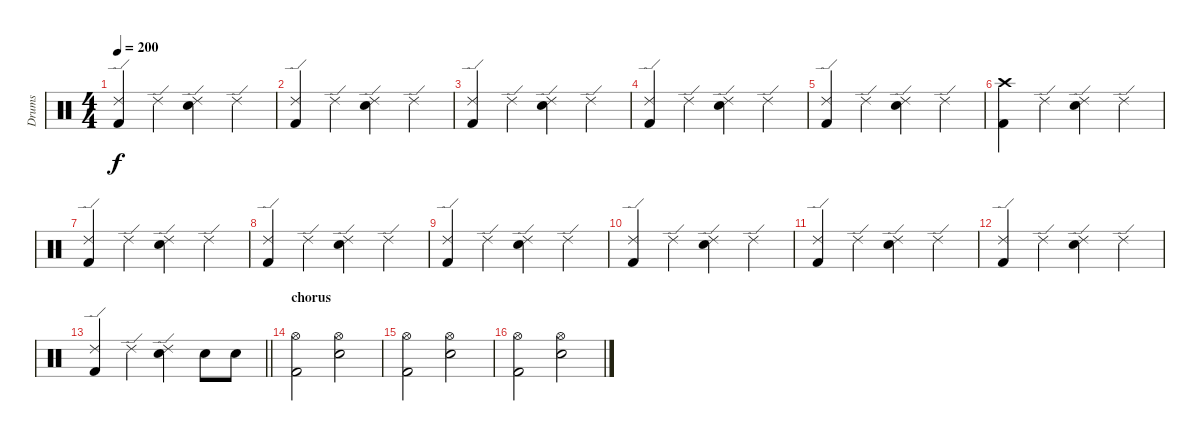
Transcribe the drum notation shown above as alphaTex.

\track ("Drums" "Drums") {instrument percussion}
\staff {score}
\articulation defaults
\ts (4 4)
\tempo 200
\clef neutral
\ks c
("Ride (edge) 2" "Kick (hit) 2").4{dy f} "Ride (edge) 2".4 ("Ride (edge) 2" "Electric Snare (hit)").4 "Ride (edge) 2".4 |
("Ride (edge) 2" "Kick (hit) 2").4 "Ride (edge) 2".4 ("Ride (edge) 2" "Electric Snare (hit)").4 "Ride (edge) 2".4 |
("Ride (edge) 2" "Kick (hit) 2").4 "Ride (edge) 2".4 ("Ride (edge) 2" "Electric Snare (hit)").4 "Ride (edge) 2".4 |
("Ride (edge) 2" "Kick (hit) 2").4 "Ride (edge) 2".4 ("Ride (edge) 2" "Electric Snare (hit)").4 "Ride (edge) 2".4 |
("Ride (edge) 2" "Kick (hit) 2").4 "Ride (edge) 2".4 ("Ride (edge) 2" "Electric Snare (hit)").4 "Ride (edge) 2".4 |
("Crash high (hit)" "Kick (hit) 2").4 "Ride (edge) 2".4 ("Ride (edge) 2" "Electric Snare (hit)").4 "Ride (edge) 2".4 |
("Ride (edge) 2" "Kick (hit) 2").4 "Ride (edge) 2".4 ("Ride (edge) 2" "Electric Snare (hit)").4 "Ride (edge) 2".4 |
("Ride (edge) 2" "Kick (hit) 2").4 "Ride (edge) 2".4 ("Ride (edge) 2" "Electric Snare (hit)").4 "Ride (edge) 2".4 |
("Ride (edge) 2" "Kick (hit) 2").4 "Ride (edge) 2".4 ("Ride (edge) 2" "Electric Snare (hit)").4 "Ride (edge) 2".4 |
("Ride (edge) 2" "Kick (hit) 2").4 "Ride (edge) 2".4 ("Ride (edge) 2" "Electric Snare (hit)").4 "Ride (edge) 2".4 |
("Ride (edge) 2" "Kick (hit) 2").4 "Ride (edge) 2".4 ("Ride (edge) 2" "Electric Snare (hit)").4 "Ride (edge) 2".4 |
("Ride (edge) 2" "Kick (hit) 2").4 "Ride (edge) 2".4 ("Ride (edge) 2" "Electric Snare (hit)").4 "Ride (edge) 2".4 |
\barLineRight lightlight
("Ride (edge) 2" "Kick (hit) 2").4 "Ride (edge) 2".4 ("Ride (edge) 2" "Electric Snare (hit)").4 "Electric Snare (hit)".8 "Electric Snare (hit)".8 |
\section ("" "chorus")
("Hi-Hat (open)" "Kick (hit) 2").2 ("Hi-Hat (open)" "Electric Snare (hit)").2 |
("Hi-Hat (open)" "Kick (hit) 2").2 ("Hi-Hat (open)" "Electric Snare (hit)").2 |
("Hi-Hat (open)" "Kick (hit) 2").2 ("Hi-Hat (open)" "Electric Snare (hit)").2
